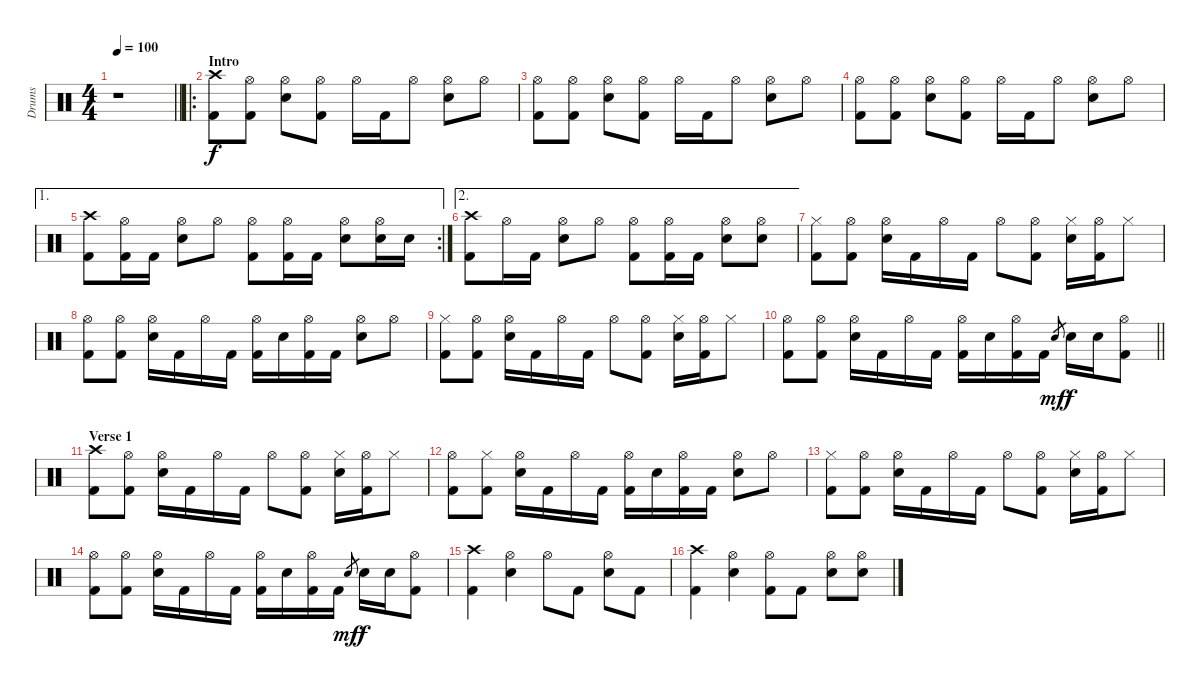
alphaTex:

\track ("Drums" "Drums") {instrument percussion}
\staff {score}
\articulation defaults
\ts (4 4)
\tempo 100
\clef neutral
\barLineRight lightlight
\ks c
r.1{dy f} |
\ro
\section ("" "Intro")
("Crash high (hit)" "Kick (hit) 2").8 ("Hi-Hat (open)" "Kick (hit) 2").8 ("Hi-Hat (open)" "Electric Snare (hit)").8 ("Hi-Hat (open)" "Kick (hit) 2").8 "Hi-Hat (open)".16 "Kick (hit) 2".16 "Hi-Hat (open)".8 ("Hi-Hat (open)" "Electric Snare (hit)").8 "Hi-Hat (open)".8 |
("Hi-Hat (open)" "Kick (hit) 2").8 ("Hi-Hat (open)" "Kick (hit) 2").8 ("Hi-Hat (open)" "Electric Snare (hit)").8 ("Hi-Hat (open)" "Kick (hit) 2").8 "Hi-Hat (open)".16 "Kick (hit) 2".16 "Hi-Hat (open)".8 ("Hi-Hat (open)" "Electric Snare (hit)").8 "Hi-Hat (open)".8 |
("Hi-Hat (open)" "Kick (hit) 2").8 ("Hi-Hat (open)" "Kick (hit) 2").8 ("Hi-Hat (open)" "Electric Snare (hit)").8 ("Hi-Hat (open)" "Kick (hit) 2").8 "Hi-Hat (open)".16 "Kick (hit) 2".16 "Hi-Hat (open)".8 ("Hi-Hat (open)" "Electric Snare (hit)").8 "Hi-Hat (open)".8 |
\ae 1
\rc 2
("Crash high (hit)" "Kick (hit) 2").8 ("Hi-Hat (open)" "Kick (hit) 2").16 "Kick (hit) 2".16 ("Hi-Hat (open)" "Electric Snare (hit)").8 "Hi-Hat (open)".8 ("Hi-Hat (open)" "Kick (hit) 2").8 ("Hi-Hat (open)" "Kick (hit) 2").16 "Kick (hit) 2".16 ("Hi-Hat (open)" "Electric Snare (hit)").8 ("Hi-Hat (open)" "Electric Snare (hit)").16 "Electric Snare (hit)".16 |
\ae 2
("Crash high (hit)" "Kick (hit) 2").8 "Hi-Hat (open)".16 "Kick (hit) 2".16 ("Hi-Hat (open)" "Electric Snare (hit)").8 "Hi-Hat (open)".8 ("Hi-Hat (open)" "Kick (hit) 2").8 ("Hi-Hat (open)" "Kick (hit) 2").16 "Kick (hit) 2".16 ("Hi-Hat (open)" "Electric Snare (hit)").8 ("Hi-Hat (open)" "Electric Snare (hit)").8 |
("Hi-Hat (closed)" "Kick (hit) 2").8 ("Hi-Hat (open)" "Kick (hit) 2").8 ("Hi-Hat (open)" "Electric Snare (hit)").16 "Kick (hit) 2".16 "Hi-Hat (open)".16 "Kick (hit) 2".16 "Hi-Hat (open)".8 ("Hi-Hat (open)" "Kick (hit) 2").8 ("Hi-Hat (closed)" "Electric Snare (hit)").16 ("Hi-Hat (open)" "Kick (hit) 2").16 "Hi-Hat (closed)".8 |
("Hi-Hat (open)" "Kick (hit) 2").8 ("Hi-Hat (open)" "Kick (hit) 2").8 ("Hi-Hat (open)" "Electric Snare (hit)").16 "Kick (hit) 2".16 "Hi-Hat (open)".16 "Kick (hit) 2".16 ("Hi-Hat (open)" "Kick (hit) 2").16 "Electric Snare (hit)".16 ("Hi-Hat (open)" "Kick (hit) 2").16 "Kick (hit) 2".16 ("Hi-Hat (open)" "Electric Snare (hit)").8 "Hi-Hat (open)".8 |
("Hi-Hat (closed)" "Kick (hit) 2").8 ("Hi-Hat (open)" "Kick (hit) 2").8 ("Hi-Hat (open)" "Electric Snare (hit)").16 "Kick (hit) 2".16 "Hi-Hat (open)".16 "Kick (hit) 2".16 "Hi-Hat (open)".8 ("Hi-Hat (open)" "Kick (hit) 2").8 ("Hi-Hat (closed)" "Electric Snare (hit)").16 ("Hi-Hat (open)" "Kick (hit) 2").16 "Hi-Hat (closed)".8 |
\barLineRight lightlight
("Hi-Hat (open)" "Kick (hit) 2").8 ("Hi-Hat (open)" "Kick (hit) 2").8 ("Hi-Hat (open)" "Electric Snare (hit)").16 "Kick (hit) 2".16 "Hi-Hat (open)".16 "Kick (hit) 2".16 ("Hi-Hat (open)" "Kick (hit) 2").16 "Electric Snare (hit)".16 ("Hi-Hat (open)" "Kick (hit) 2").16 "Kick (hit) 2".16 "Electric Snare (hit)".8{gr dy mf} "Electric Snare (hit)".16{dy f} "Electric Snare (hit)".16 ("Hi-Hat (open)" "Kick (hit) 2").8 |
\section ("" "Verse 1")
("Crash high (hit)" "Kick (hit) 2").8 ("Hi-Hat (open)" "Kick (hit) 2").8 ("Hi-Hat (open)" "Electric Snare (hit)").16 "Kick (hit) 2".16 "Hi-Hat (open)".16 "Kick (hit) 2".16 "Hi-Hat (open)".8 ("Hi-Hat (open)" "Kick (hit) 2").8 ("Hi-Hat (closed)" "Electric Snare (hit)").16 ("Hi-Hat (open)" "Kick (hit) 2").16 "Hi-Hat (closed)".8 |
("Hi-Hat (open)" "Kick (hit) 2").8 ("Hi-Hat (closed)" "Kick (hit) 2").8 ("Hi-Hat (open)" "Electric Snare (hit)").16 "Kick (hit) 2".16 "Hi-Hat (open)".16 "Kick (hit) 2".16 ("Hi-Hat (open)" "Kick (hit) 2").16 "Electric Snare (hit)".16 ("Hi-Hat (open)" "Kick (hit) 2").16 "Kick (hit) 2".16 ("Hi-Hat (open)" "Electric Snare (hit)").8 "Hi-Hat (open)".8 |
("Hi-Hat (closed)" "Kick (hit) 2").8 ("Hi-Hat (open)" "Kick (hit) 2").8 ("Hi-Hat (open)" "Electric Snare (hit)").16 "Kick (hit) 2".16 "Hi-Hat (open)".16 "Kick (hit) 2".16 "Hi-Hat (open)".8 ("Hi-Hat (open)" "Kick (hit) 2").8 ("Hi-Hat (closed)" "Electric Snare (hit)").16 ("Hi-Hat (open)" "Kick (hit) 2").16 "Hi-Hat (closed)".8 |
("Hi-Hat (open)" "Kick (hit) 2").8 ("Hi-Hat (open)" "Kick (hit) 2").8 ("Hi-Hat (open)" "Electric Snare (hit)").16 "Kick (hit) 2".16 "Hi-Hat (open)".16 "Kick (hit) 2".16 ("Hi-Hat (open)" "Kick (hit) 2").16 "Electric Snare (hit)".16 ("Hi-Hat (open)" "Kick (hit) 2").16 "Kick (hit) 2".16 "Electric Snare (hit)".8{gr dy mf} "Electric Snare (hit)".16{dy f} "Electric Snare (hit)".16 ("Hi-Hat (open)" "Kick (hit) 2").8 |
("Crash high (hit)" "Kick (hit) 2").4 ("Hi-Hat (open)" "Electric Snare (hit)").4 "Hi-Hat (open)".8 "Kick (hit) 2".8 ("Hi-Hat (open)" "Electric Snare (hit)").8 "Kick (hit) 2".8 |
("Crash high (hit)" "Kick (hit) 2").4 ("Hi-Hat (open)" "Electric Snare (hit)").4 ("Hi-Hat (open)" "Kick (hit) 2").8 "Kick (hit) 2".8 ("Hi-Hat (open)" "Electric Snare (hit)").8 ("Hi-Hat (open)" "Electric Snare (hit)").8
